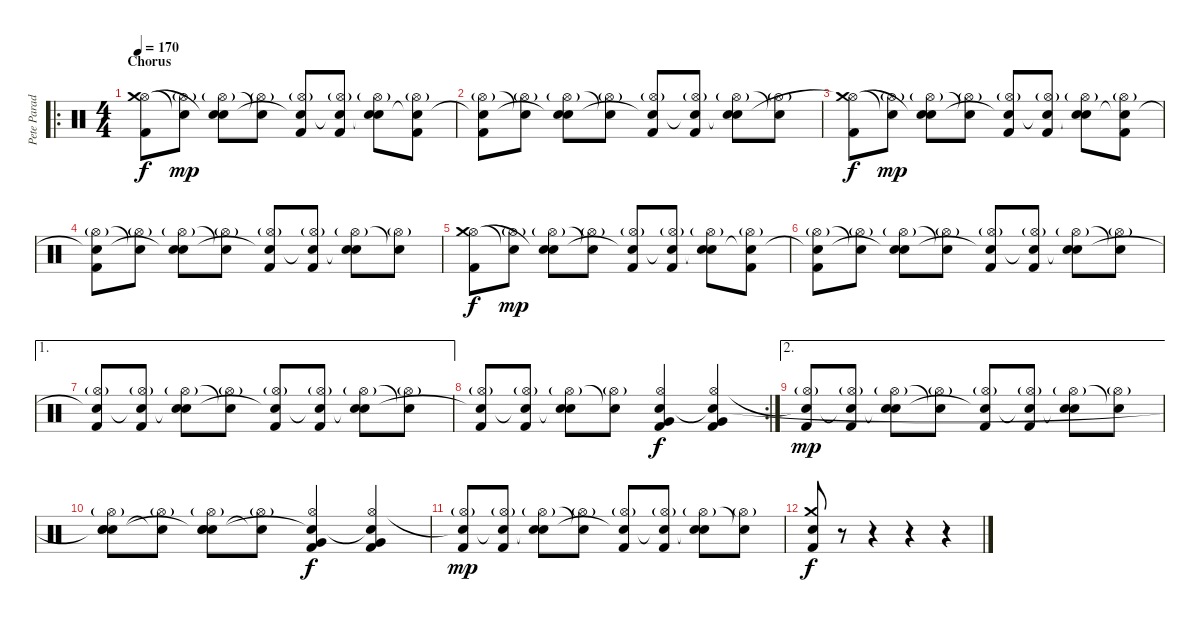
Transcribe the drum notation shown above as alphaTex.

\track ("Pete Parada" "Pete Parad") {instrument percussion}
\staff {score}
\articulation defaults
\ro
\ts (4 4)
\section ("" "Chorus")
\tempo 170
\clef neutral
\ks c
("Kick (hit) 2" "Hi-Hat (open)" "Crash medium (hit)").8{dy f} ("Hi-Hat (open)"{g} "Snare (hit)"{t}).8{dy mp} ("Snare (hit) 2" "Hi-Hat (open)"{g} "Snare (hit)"{t}).8 ("Hi-Hat (open)"{g} "Snare (hit)"{t}).8 ("Kick (hit) 2" "Hi-Hat (open)"{g} "Snare (hit)"{t}).8 ("Kick (hit) 2" "Hi-Hat (open)"{g} "Snare (hit)"{t}).8 ("Snare (hit) 2" "Hi-Hat (open)"{g} "Snare (hit)"{t}).8 ("Kick (hit) 2" "Hi-Hat (open)"{g} "Snare (hit)"{t}).8 |
("Kick (hit) 2" "Hi-Hat (open)"{g} "Snare (hit)"{t}).8 ("Hi-Hat (open)"{g} "Snare (hit)"{t}).8 ("Snare (hit) 2" "Hi-Hat (open)"{g} "Snare (hit)"{t}).8 ("Hi-Hat (open)"{g} "Snare (hit)"{t}).8 ("Kick (hit) 2" "Hi-Hat (open)"{g} "Snare (hit)"{t}).8 ("Kick (hit) 2" "Hi-Hat (open)"{g} "Snare (hit)"{t}).8 ("Snare (hit) 2" "Hi-Hat (open)"{g} "Snare (hit)"{t}).8 ("Hi-Hat (open)"{g} "Snare (hit)"{t}).8 |
("Kick (hit) 2" "Hi-Hat (open)" "Crash medium (hit)"{t}).8{dy f} ("Hi-Hat (open)"{g} "Snare (hit)"{t}).8{dy mp} ("Snare (hit) 2" "Hi-Hat (open)"{g} "Snare (hit)"{t}).8 ("Hi-Hat (open)"{g} "Snare (hit)"{t}).8 ("Kick (hit) 2" "Hi-Hat (open)"{g} "Snare (hit)"{t}).8 ("Kick (hit) 2" "Hi-Hat (open)"{g} "Snare (hit)"{t}).8 ("Snare (hit) 2" "Hi-Hat (open)"{g} "Snare (hit)"{t}).8 ("Kick (hit) 2" "Hi-Hat (open)"{g} "Snare (hit)"{t}).8 |
("Kick (hit) 2" "Hi-Hat (open)"{g} "Snare (hit)"{t}).8 ("Hi-Hat (open)"{g} "Snare (hit)"{t}).8 ("Snare (hit) 2" "Hi-Hat (open)"{g} "Snare (hit)"{t}).8 ("Hi-Hat (open)"{g} "Snare (hit)"{t}).8 ("Kick (hit) 2" "Hi-Hat (open)"{g} "Snare (hit)"{t}).8 ("Kick (hit) 2" "Hi-Hat (open)"{g} "Snare (hit)"{t}).8 ("Snare (hit) 2" "Hi-Hat (open)"{g} "Snare (hit)"{t}).8 ("Hi-Hat (open)"{g} "Snare (hit)"{t}).8 |
("Kick (hit) 2" "Hi-Hat (open)" "Crash medium (hit)").8{dy f} ("Hi-Hat (open)"{g} "Snare (hit)"{t}).8{dy mp} ("Snare (hit) 2" "Hi-Hat (open)"{g} "Snare (hit)"{t}).8 ("Hi-Hat (open)"{g} "Snare (hit)"{t}).8 ("Kick (hit) 2" "Hi-Hat (open)"{g} "Snare (hit)"{t}).8 ("Kick (hit) 2" "Hi-Hat (open)"{g} "Snare (hit)"{t}).8 ("Snare (hit) 2" "Hi-Hat (open)"{g} "Snare (hit)"{t}).8 ("Kick (hit) 2" "Hi-Hat (open)"{g} "Snare (hit)"{t}).8 |
("Kick (hit) 2" "Hi-Hat (open)"{g} "Snare (hit)"{t}).8 ("Hi-Hat (open)"{g} "Snare (hit)"{t}).8 ("Snare (hit) 2" "Hi-Hat (open)"{g} "Snare (hit)"{t}).8 ("Hi-Hat (open)"{g} "Snare (hit)"{t}).8 ("Kick (hit) 2" "Hi-Hat (open)"{g} "Snare (hit)"{t}).8 ("Kick (hit) 2" "Hi-Hat (open)"{g} "Snare (hit)"{t}).8 ("Snare (hit) 2" "Hi-Hat (open)"{g} "Snare (hit)"{t}).8 ("Hi-Hat (open)"{g} "Snare (hit)"{t}).8 |
\ae 1
("Kick (hit) 2" "Hi-Hat (open)"{g} "Snare (hit)"{t}).8 ("Kick (hit) 2" "Hi-Hat (open)"{g} "Snare (hit)"{t}).8 ("Snare (hit) 2" "Hi-Hat (open)"{g} "Snare (hit)"{t}).8 ("Hi-Hat (open)"{g} "Snare (hit)"{t}).8 ("Kick (hit) 2" "Hi-Hat (open)"{g} "Snare (hit)"{t}).8 ("Kick (hit) 2" "Hi-Hat (open)"{g} "Snare (hit)"{t}).8 ("Snare (hit) 2" "Hi-Hat (open)"{g} "Snare (hit)"{t}).8 ("Hi-Hat (open)"{g} "Snare (hit)"{t}).8 |
\rc 2
("Kick (hit) 2" "Hi-Hat (open)"{g} "Snare (hit)"{t}).8 ("Kick (hit) 2" "Hi-Hat (open)"{g} "Snare (hit)"{t}).8 ("Snare (hit) 2" "Hi-Hat (open)"{g} "Snare (hit)"{t}).8 ("Hi-Hat (open)"{g} "Snare (hit)"{t}).8 ("Kick (hit) 2" "Very Low Tom (hit)" "Hi-Hat (open)" "Snare (hit)").4{dy f} ("Kick (hit) 2" "Very Low Tom (hit)" "Hi-Hat (open)" "Snare (hit)"{t}).4 |
\ae 2
("Kick (hit) 2" "Hi-Hat (open)"{g} "Snare (hit)"{t}).8{dy mp} ("Kick (hit) 2" "Hi-Hat (open)"{g} "Snare (hit)"{t}).8 ("Snare (hit) 2" "Hi-Hat (open)"{g} "Snare (hit)"{t}).8 ("Hi-Hat (open)"{g} "Snare (hit)"{t}).8 ("Kick (hit) 2" "Hi-Hat (open)"{g} "Snare (hit)"{t}).8 ("Kick (hit) 2" "Hi-Hat (open)"{g} "Snare (hit)"{t}).8 ("Snare (hit) 2" "Hi-Hat (open)"{g} "Snare (hit)"{t}).8 ("Hi-Hat (open)"{g} "Snare (hit)"{t}).8 |
("Snare (hit) 2" "Snare (hit) 2" "Hi-Hat (open)"{g} "Snare (hit)"{t}).8 ("Hi-Hat (open)"{g} "Snare (hit)"{t}).8 ("Snare (hit) 2" "Snare (hit) 2" "Hi-Hat (open)"{g} "Snare (hit)"{t}).8 ("Hi-Hat (open)"{g} "Snare (hit)"{t}).8 ("Kick (hit) 2" "Very Low Tom (hit)" "Hi-Hat (open)" "Snare (hit)"{t}).4{dy f} ("Kick (hit) 2" "Very Low Tom (hit)" "Hi-Hat (open)" "Snare (hit)"{t}).4 |
("Kick (hit) 2" "Hi-Hat (open)"{g} "Snare (hit)"{t}).8{dy mp} ("Kick (hit) 2" "Hi-Hat (open)"{g} "Snare (hit)"{t}).8 ("Snare (hit) 2" "Hi-Hat (open)"{g} "Snare (hit)"{t}).8 ("Hi-Hat (open)"{g} "Snare (hit)"{t}).8 ("Kick (hit) 2" "Hi-Hat (open)"{g} "Snare (hit)"{t}).8 ("Kick (hit) 2" "Hi-Hat (open)"{g} "Snare (hit)"{t}).8 ("Snare (hit) 2" "Hi-Hat (open)"{g} "Snare (hit)"{t}).8 ("Hi-Hat (open)"{g} "Snare (hit)"{t}).8 |
("Snare (hit) 2" "Kick (hit) 2" "Crash medium (hit)").8{dy f} r.8 r.4 r.4 r.4
